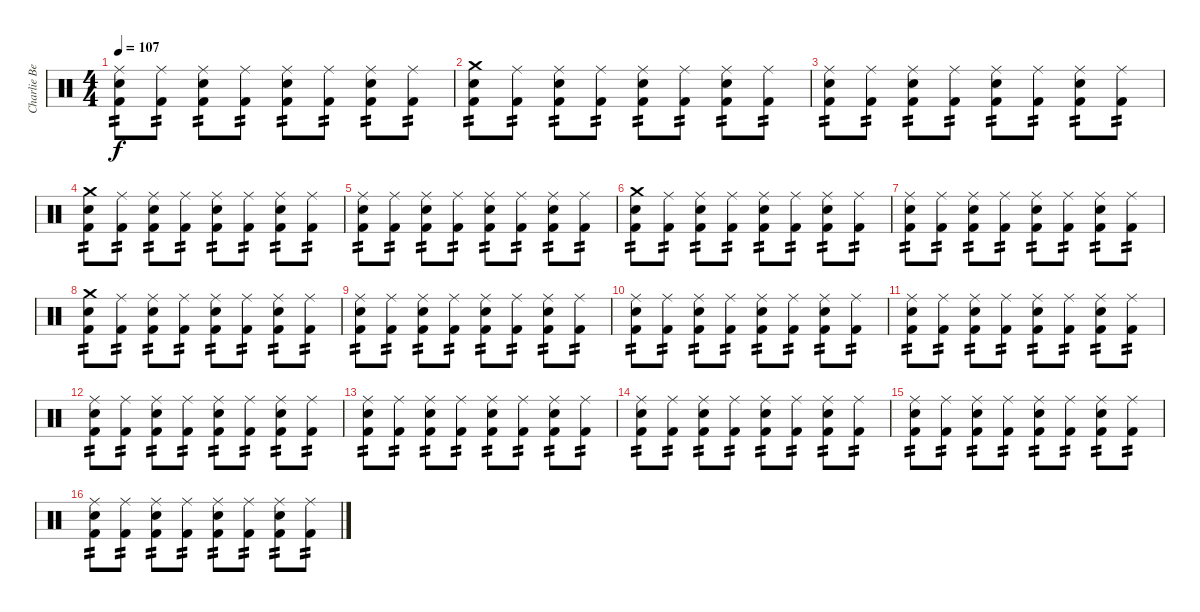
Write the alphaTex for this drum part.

\track ("Charlie Benante" "Charlie Be") {instrument percussion}
\staff {score}
\articulation defaults
\ts (4 4)
\tempo 107
\clef neutral
\ks c
("Ride (middle)" "Electric Snare (hit)" "Kick (hit) 2").8{tp 2 dy f} ("Ride (middle)" "Kick (hit) 2").8{tp 2} ("Ride (middle)" "Electric Snare (hit)" "Kick (hit) 2").8{tp 2} ("Ride (middle)" "Kick (hit) 2").8{tp 2} ("Ride (middle)" "Electric Snare (hit)" "Kick (hit) 2").8{tp 2} ("Ride (middle)" "Kick (hit) 2").8{tp 2} ("Ride (middle)" "Electric Snare (hit)" "Kick (hit) 2").8{tp 2} ("Ride (middle)" "Kick (hit) 2").8{tp 2} |
("Crash medium (hit)" "Electric Snare (hit)" "Kick (hit) 2").8{tp 2} ("Ride (middle)" "Kick (hit) 2").8{tp 2} ("Ride (middle)" "Electric Snare (hit)" "Kick (hit) 2").8{tp 2} ("Ride (middle)" "Kick (hit) 2").8{tp 2} ("Ride (middle)" "Electric Snare (hit)" "Kick (hit) 2").8{tp 2} ("Ride (middle)" "Kick (hit) 2").8{tp 2} ("Ride (middle)" "Electric Snare (hit)" "Kick (hit) 2").8{tp 2} ("Ride (middle)" "Kick (hit) 2").8{tp 2} |
("Ride (middle)" "Electric Snare (hit)" "Kick (hit) 2").8{tp 2} ("Ride (middle)" "Kick (hit) 2").8{tp 2} ("Ride (middle)" "Electric Snare (hit)" "Kick (hit) 2").8{tp 2} ("Ride (middle)" "Kick (hit) 2").8{tp 2} ("Ride (middle)" "Electric Snare (hit)" "Kick (hit) 2").8{tp 2} ("Ride (middle)" "Kick (hit) 2").8{tp 2} ("Ride (middle)" "Electric Snare (hit)" "Kick (hit) 2").8{tp 2} ("Ride (middle)" "Kick (hit) 2").8{tp 2} |
("Crash medium (hit)" "Electric Snare (hit)" "Kick (hit) 2").8{tp 2} ("Ride (middle)" "Kick (hit) 2").8{tp 2} ("Ride (middle)" "Electric Snare (hit)" "Kick (hit) 2").8{tp 2} ("Ride (middle)" "Kick (hit) 2").8{tp 2} ("Ride (middle)" "Electric Snare (hit)" "Kick (hit) 2").8{tp 2} ("Ride (middle)" "Kick (hit) 2").8{tp 2} ("Ride (middle)" "Electric Snare (hit)" "Kick (hit) 2").8{tp 2} ("Ride (middle)" "Kick (hit) 2").8{tp 2} |
("Ride (middle)" "Electric Snare (hit)" "Kick (hit) 2").8{tp 2} ("Ride (middle)" "Kick (hit) 2").8{tp 2} ("Ride (middle)" "Electric Snare (hit)" "Kick (hit) 2").8{tp 2} ("Ride (middle)" "Kick (hit) 2").8{tp 2} ("Ride (middle)" "Electric Snare (hit)" "Kick (hit) 2").8{tp 2} ("Ride (middle)" "Kick (hit) 2").8{tp 2} ("Ride (middle)" "Electric Snare (hit)" "Kick (hit) 2").8{tp 2} ("Ride (middle)" "Kick (hit) 2").8{tp 2} |
("Crash medium (hit)" "Electric Snare (hit)" "Kick (hit) 2").8{tp 2} ("Ride (middle)" "Kick (hit) 2").8{tp 2} ("Ride (middle)" "Electric Snare (hit)" "Kick (hit) 2").8{tp 2} ("Ride (middle)" "Kick (hit) 2").8{tp 2} ("Ride (middle)" "Electric Snare (hit)" "Kick (hit) 2").8{tp 2} ("Ride (middle)" "Kick (hit) 2").8{tp 2} ("Ride (middle)" "Electric Snare (hit)" "Kick (hit) 2").8{tp 2} ("Ride (middle)" "Kick (hit) 2").8{tp 2} |
("Ride (middle)" "Electric Snare (hit)" "Kick (hit) 2").8{tp 2} ("Ride (middle)" "Kick (hit) 2").8{tp 2} ("Ride (middle)" "Electric Snare (hit)" "Kick (hit) 2").8{tp 2} ("Ride (middle)" "Kick (hit) 2").8{tp 2} ("Ride (middle)" "Electric Snare (hit)" "Kick (hit) 2").8{tp 2} ("Ride (middle)" "Kick (hit) 2").8{tp 2} ("Ride (middle)" "Electric Snare (hit)" "Kick (hit) 2").8{tp 2} ("Ride (middle)" "Kick (hit) 2").8{tp 2} |
("Crash medium (hit)" "Electric Snare (hit)" "Kick (hit) 2").8{tp 2} ("Ride (middle)" "Kick (hit) 2").8{tp 2} ("Ride (middle)" "Electric Snare (hit)" "Kick (hit) 2").8{tp 2} ("Ride (middle)" "Kick (hit) 2").8{tp 2} ("Ride (middle)" "Electric Snare (hit)" "Kick (hit) 2").8{tp 2} ("Ride (middle)" "Kick (hit) 2").8{tp 2} ("Ride (middle)" "Electric Snare (hit)" "Kick (hit) 2").8{tp 2} ("Ride (middle)" "Kick (hit) 2").8{tp 2} |
("Ride (middle)" "Electric Snare (hit)" "Kick (hit) 2").8{tp 2} ("Ride (middle)" "Kick (hit) 2").8{tp 2} ("Ride (middle)" "Electric Snare (hit)" "Kick (hit) 2").8{tp 2} ("Ride (middle)" "Kick (hit) 2").8{tp 2} ("Ride (middle)" "Electric Snare (hit)" "Kick (hit) 2").8{tp 2} ("Ride (middle)" "Kick (hit) 2").8{tp 2} ("Ride (middle)" "Electric Snare (hit)" "Kick (hit) 2").8{tp 2} ("Ride (middle)" "Kick (hit) 2").8{tp 2} |
("Ride (middle)" "Electric Snare (hit)" "Kick (hit) 2").8{tp 2} ("Ride (middle)" "Kick (hit) 2").8{tp 2} ("Ride (middle)" "Electric Snare (hit)" "Kick (hit) 2").8{tp 2} ("Ride (middle)" "Kick (hit) 2").8{tp 2} ("Ride (middle)" "Electric Snare (hit)" "Kick (hit) 2").8{tp 2} ("Ride (middle)" "Kick (hit) 2").8{tp 2} ("Ride (middle)" "Electric Snare (hit)" "Kick (hit) 2").8{tp 2} ("Ride (middle)" "Kick (hit) 2").8{tp 2} |
("Ride (middle)" "Electric Snare (hit)" "Kick (hit) 2").8{tp 2} ("Ride (middle)" "Kick (hit) 2").8{tp 2} ("Ride (middle)" "Electric Snare (hit)" "Kick (hit) 2").8{tp 2} ("Ride (middle)" "Kick (hit) 2").8{tp 2} ("Ride (middle)" "Electric Snare (hit)" "Kick (hit) 2").8{tp 2} ("Ride (middle)" "Kick (hit) 2").8{tp 2} ("Ride (middle)" "Electric Snare (hit)" "Kick (hit) 2").8{tp 2} ("Ride (middle)" "Kick (hit) 2").8{tp 2} |
("Ride (middle)" "Electric Snare (hit)" "Kick (hit) 2").8{tp 2} ("Ride (middle)" "Kick (hit) 2").8{tp 2} ("Ride (middle)" "Electric Snare (hit)" "Kick (hit) 2").8{tp 2} ("Ride (middle)" "Kick (hit) 2").8{tp 2} ("Ride (middle)" "Electric Snare (hit)" "Kick (hit) 2").8{tp 2} ("Ride (middle)" "Kick (hit) 2").8{tp 2} ("Ride (middle)" "Electric Snare (hit)" "Kick (hit) 2").8{tp 2} ("Ride (middle)" "Kick (hit) 2").8{tp 2} |
("Ride (middle)" "Electric Snare (hit)" "Kick (hit) 2").8{tp 2} ("Ride (middle)" "Kick (hit) 2").8{tp 2} ("Ride (middle)" "Electric Snare (hit)" "Kick (hit) 2").8{tp 2} ("Ride (middle)" "Kick (hit) 2").8{tp 2} ("Ride (middle)" "Electric Snare (hit)" "Kick (hit) 2").8{tp 2} ("Ride (middle)" "Kick (hit) 2").8{tp 2} ("Ride (middle)" "Electric Snare (hit)" "Kick (hit) 2").8{tp 2} ("Ride (middle)" "Kick (hit) 2").8{tp 2} |
("Ride (middle)" "Electric Snare (hit)" "Kick (hit) 2").8{tp 2} ("Ride (middle)" "Kick (hit) 2").8{tp 2} ("Ride (middle)" "Electric Snare (hit)" "Kick (hit) 2").8{tp 2} ("Ride (middle)" "Kick (hit) 2").8{tp 2} ("Ride (middle)" "Electric Snare (hit)" "Kick (hit) 2").8{tp 2} ("Ride (middle)" "Kick (hit) 2").8{tp 2} ("Ride (middle)" "Electric Snare (hit)" "Kick (hit) 2").8{tp 2} ("Ride (middle)" "Kick (hit) 2").8{tp 2} |
("Ride (middle)" "Electric Snare (hit)" "Kick (hit) 2").8{tp 2} ("Ride (middle)" "Kick (hit) 2").8{tp 2} ("Ride (middle)" "Electric Snare (hit)" "Kick (hit) 2").8{tp 2} ("Ride (middle)" "Kick (hit) 2").8{tp 2} ("Ride (middle)" "Electric Snare (hit)" "Kick (hit) 2").8{tp 2} ("Ride (middle)" "Kick (hit) 2").8{tp 2} ("Ride (middle)" "Electric Snare (hit)" "Kick (hit) 2").8{tp 2} ("Ride (middle)" "Kick (hit) 2").8{tp 2} |
("Ride (middle)" "Electric Snare (hit)" "Kick (hit) 2").8{tp 2} ("Ride (middle)" "Kick (hit) 2").8{tp 2} ("Ride (middle)" "Electric Snare (hit)" "Kick (hit) 2").8{tp 2} ("Ride (middle)" "Kick (hit) 2").8{tp 2} ("Ride (middle)" "Electric Snare (hit)" "Kick (hit) 2").8{tp 2} ("Ride (middle)" "Kick (hit) 2").8{tp 2} ("Ride (middle)" "Electric Snare (hit)" "Kick (hit) 2").8{tp 2} ("Ride (middle)" "Kick (hit) 2").8{tp 2}
